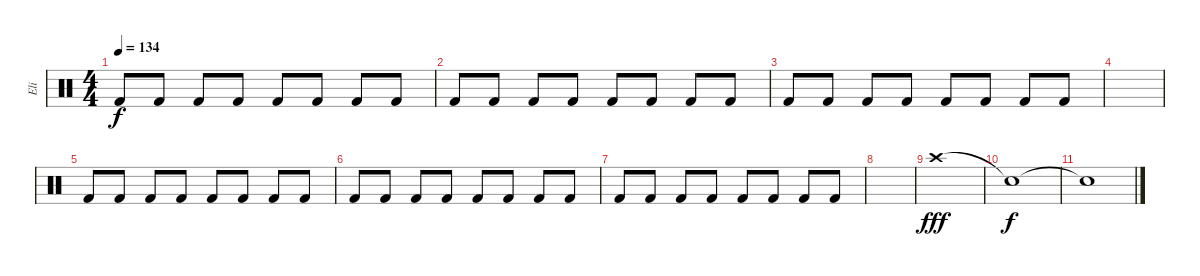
\track ("Eli" "Eli") {instrument percussion}
\staff {score}
\articulation defaults
\ts (4 4)
\tempo 134
\clef neutral
\ks c "Kick (hit) 2".8{dy f} "Kick (hit) 2".8 "Kick (hit) 2".8 "Kick (hit) 2".8 "Kick (hit) 2".8 "Kick (hit) 2".8 "Kick (hit) 2".8 "Kick (hit) 2".8
|
"Kick (hit) 2".8 "Kick (hit) 2".8 "Kick (hit) 2".8 "Kick (hit) 2".8 "Kick (hit) 2".8 "Kick (hit) 2".8 "Kick (hit) 2".8 "Kick (hit) 2".8 |
"Kick (hit) 2".8 "Kick (hit) 2".8 "Kick (hit) 2".8 "Kick (hit) 2".8 "Kick (hit) 2".8 "Kick (hit) 2".8 "Kick (hit) 2".8 "Kick (hit) 2".8 |
|
"Kick (hit) 2".8 "Kick (hit) 2".8 "Kick (hit) 2".8 "Kick (hit) 2".8 "Kick (hit) 2".8 "Kick (hit) 2".8 "Kick (hit) 2".8 "Kick (hit) 2".8 |
"Kick (hit) 2".8 "Kick (hit) 2".8 "Kick (hit) 2".8 "Kick (hit) 2".8 "Kick (hit) 2".8 "Kick (hit) 2".8 "Kick (hit) 2".8 "Kick (hit) 2".8 |
"Kick (hit) 2".8 "Kick (hit) 2".8 "Kick (hit) 2".8 "Kick (hit) 2".8 "Kick (hit) 2".8 "Kick (hit) 2".8 "Kick (hit) 2".8 "Kick (hit) 2".8 |
|
"Crash high (hit)".1{dy fff} |
"Snare (hit)"{t}.1{dy f} |
"Snare (hit)"{t}.1
